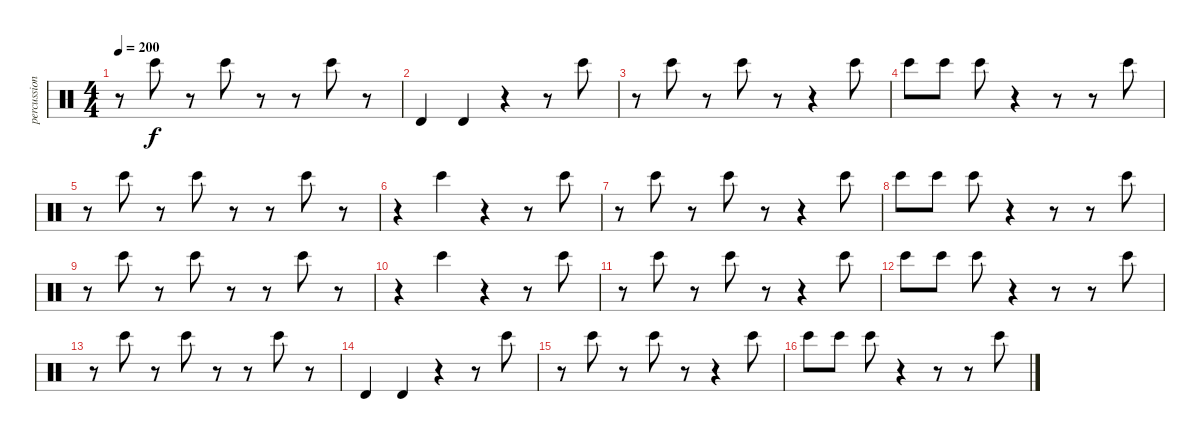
\track ("percussion" "percussion") {instrument percussion}
\staff {score}
\articulation defaults
\ts (4 4)
\tempo 200
\clef neutral
\ks c
r.8{dy f} "Bongo High (hit)".8 r.8 "Bongo High (hit)".8 r.8 r.8 "Bongo High (hit)".8 r.8 |
"Timbale high (hit)".4{volume 16} "Timbale high (hit)".4 r.4{volume 13} r.8 "Bongo High (hit)".8 |
r.8 "Bongo High (hit)".8 r.8 "Bongo High (hit)".8 r.8 r.4 "Bongo High (hit)".8 |
"Bongo High (hit)".8 "Bongo High (hit)".8 "Bongo High (hit)".8 r.4 r.8 r.8 "Bongo High (hit)".8 |
r.8 "Bongo High (hit)".8 r.8 "Bongo High (hit)".8 r.8 r.8 "Bongo High (hit)".8 r.8 |
r.4 "Bongo High (hit)".4 r.4 r.8 "Bongo High (hit)".8 |
r.8 "Bongo High (hit)".8 r.8 "Bongo High (hit)".8 r.8 r.4 "Bongo High (hit)".8 |
"Bongo High (hit)".8 "Bongo High (hit)".8 "Bongo High (hit)".8 r.4 r.8 r.8 "Bongo High (hit)".8 |
r.8 "Bongo High (hit)".8 r.8 "Bongo High (hit)".8 r.8 r.8 "Bongo High (hit)".8 r.8 |
r.4 "Bongo High (hit)".4 r.4 r.8 "Bongo High (hit)".8 |
r.8 "Bongo High (hit)".8 r.8 "Bongo High (hit)".8 r.8 r.4 "Bongo High (hit)".8 |
"Bongo High (hit)".8 "Bongo High (hit)".8 "Bongo High (hit)".8 r.4 r.8 r.8 "Bongo High (hit)".8 |
r.8 "Bongo High (hit)".8 r.8 "Bongo High (hit)".8 r.8 r.8 "Bongo High (hit)".8 r.8 |
"Timbale high (hit)".4{volume 16} "Timbale high (hit)".4 r.4{volume 13} r.8 "Bongo High (hit)".8 |
r.8 "Bongo High (hit)".8 r.8 "Bongo High (hit)".8 r.8 r.4 "Bongo High (hit)".8 |
"Bongo High (hit)".8 "Bongo High (hit)".8 "Bongo High (hit)".8 r.4 r.8 r.8 "Bongo High (hit)".8
